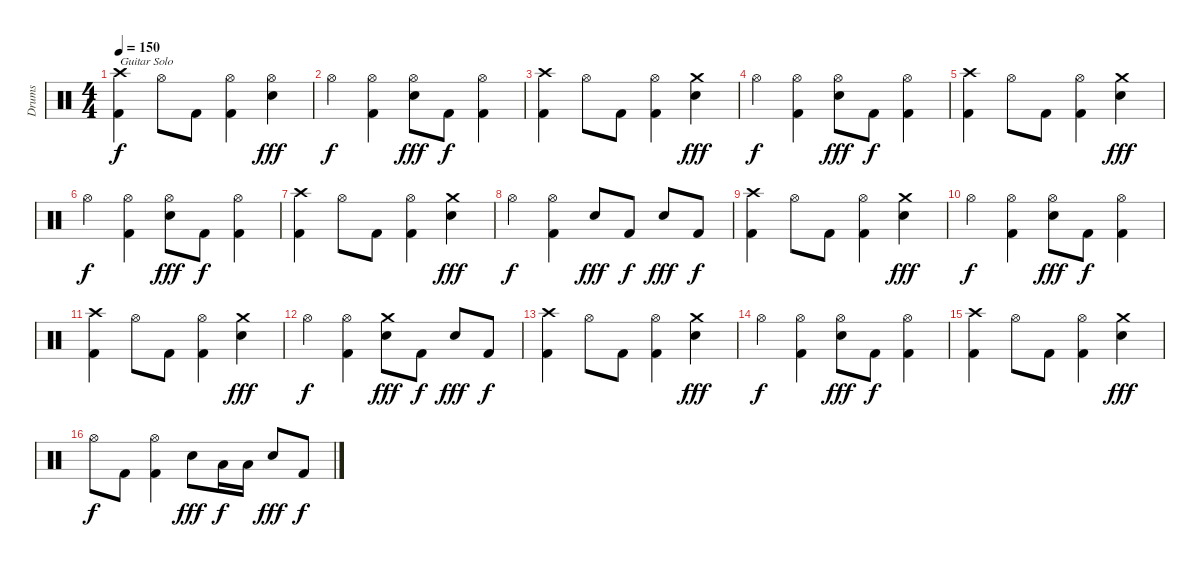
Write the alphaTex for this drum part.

\track ("Drums" "Drums") {instrument percussion}
\staff {score}
\articulation defaults
\ts (4 4)
\tempo 150
\clef neutral
\ks c
("Crash high (hit)" "Kick (hit) 2").4{txt "Guitar Solo" dy f} "Hi-Hat (open)".8 "Kick (hit) 2".8 ("Hi-Hat (open)" "Kick (hit) 2").4 ("Hi-Hat (open)" "Snare (hit) 2").4{dy fff} |
"Hi-Hat (open)".4{dy f} ("Hi-Hat (open)" "Kick (hit) 2").4 ("Hi-Hat (open)" "Snare (hit) 2").8{dy fff} "Kick (hit) 2".8{dy f} ("Hi-Hat (open)" "Kick (hit) 2").4 |
("Crash high (hit)" "Kick (hit) 2").4 "Hi-Hat (open)".8 "Kick (hit) 2".8 ("Hi-Hat (open)" "Kick (hit) 2").4 ("Crash medium (hit)" "Snare (hit) 2").4{dy fff} |
"Hi-Hat (open)".4{dy f} ("Hi-Hat (open)" "Kick (hit) 2").4 ("Hi-Hat (open)" "Snare (hit) 2").8{dy fff} "Kick (hit) 2".8{dy f} ("Hi-Hat (open)" "Kick (hit) 2").4 |
("Crash high (hit)" "Kick (hit) 2").4 "Hi-Hat (open)".8 "Kick (hit) 2".8 ("Hi-Hat (open)" "Kick (hit) 2").4 ("Crash medium (hit)" "Snare (hit) 2").4{dy fff} |
"Hi-Hat (open)".4{dy f} ("Hi-Hat (open)" "Kick (hit) 2").4 ("Hi-Hat (open)" "Snare (hit) 2").8{dy fff} "Kick (hit) 2".8{dy f} ("Hi-Hat (open)" "Kick (hit) 2").4 |
("Crash high (hit)" "Kick (hit) 2").4 "Hi-Hat (open)".8 "Kick (hit) 2".8 ("Hi-Hat (open)" "Kick (hit) 2").4 ("Crash medium (hit)" "Snare (hit) 2").4{dy fff} |
"Hi-Hat (open)".4{dy f} ("Hi-Hat (open)" "Kick (hit) 2").4 "Snare (hit) 2".8{dy fff} "Kick (hit) 2".8{dy f} "Snare (hit) 2".8{dy fff} "Kick (hit) 2".8{dy f} |
("Crash high (hit)" "Kick (hit) 2").4 "Hi-Hat (open)".8 "Kick (hit) 2".8 ("Hi-Hat (open)" "Kick (hit) 2").4 ("Crash medium (hit)" "Snare (hit) 2").4{dy fff} |
"Hi-Hat (open)".4{dy f} ("Hi-Hat (open)" "Kick (hit) 2").4 ("Hi-Hat (open)" "Snare (hit) 2").8{dy fff} "Kick (hit) 2".8{dy f} ("Hi-Hat (open)" "Kick (hit) 2").4 |
("Crash high (hit)" "Kick (hit) 2").4 "Hi-Hat (open)".8 "Kick (hit) 2".8 ("Hi-Hat (open)" "Kick (hit) 2").4 ("Crash medium (hit)" "Snare (hit) 2").4{dy fff} |
"Hi-Hat (open)".4{dy f} ("Hi-Hat (open)" "Kick (hit) 2").4 ("Crash medium (hit)" "Snare (hit) 2").8{dy fff} "Kick (hit) 2".8{dy f} "Snare (hit) 2".8{dy fff} "Kick (hit) 2".8{dy f} |
("Crash high (hit)" "Kick (hit) 2").4 "Hi-Hat (open)".8 "Kick (hit) 2".8 ("Hi-Hat (open)" "Kick (hit) 2").4 ("Crash medium (hit)" "Snare (hit) 2").4{dy fff} |
"Hi-Hat (open)".4{dy f} ("Hi-Hat (open)" "Kick (hit) 2").4 ("Hi-Hat (open)" "Snare (hit) 2").8{dy fff} "Kick (hit) 2".8{dy f} ("Hi-Hat (open)" "Kick (hit) 2").4 |
("Crash high (hit)" "Kick (hit) 2").4 "Hi-Hat (open)".8 "Kick (hit) 2".8 ("Hi-Hat (open)" "Kick (hit) 2").4 ("Crash medium (hit)" "Snare (hit) 2").4{dy fff} |
"Hi-Hat (open)".8{dy f} "Kick (hit) 2".8 ("Hi-Hat (open)" "Kick (hit) 2").4 "Snare (hit) 2".8{dy fff} "Low Tom (hit)".16{dy f} "Low Tom (hit)".16 "Snare (hit) 2".8{dy fff} "Kick (hit) 2".8{dy f}
